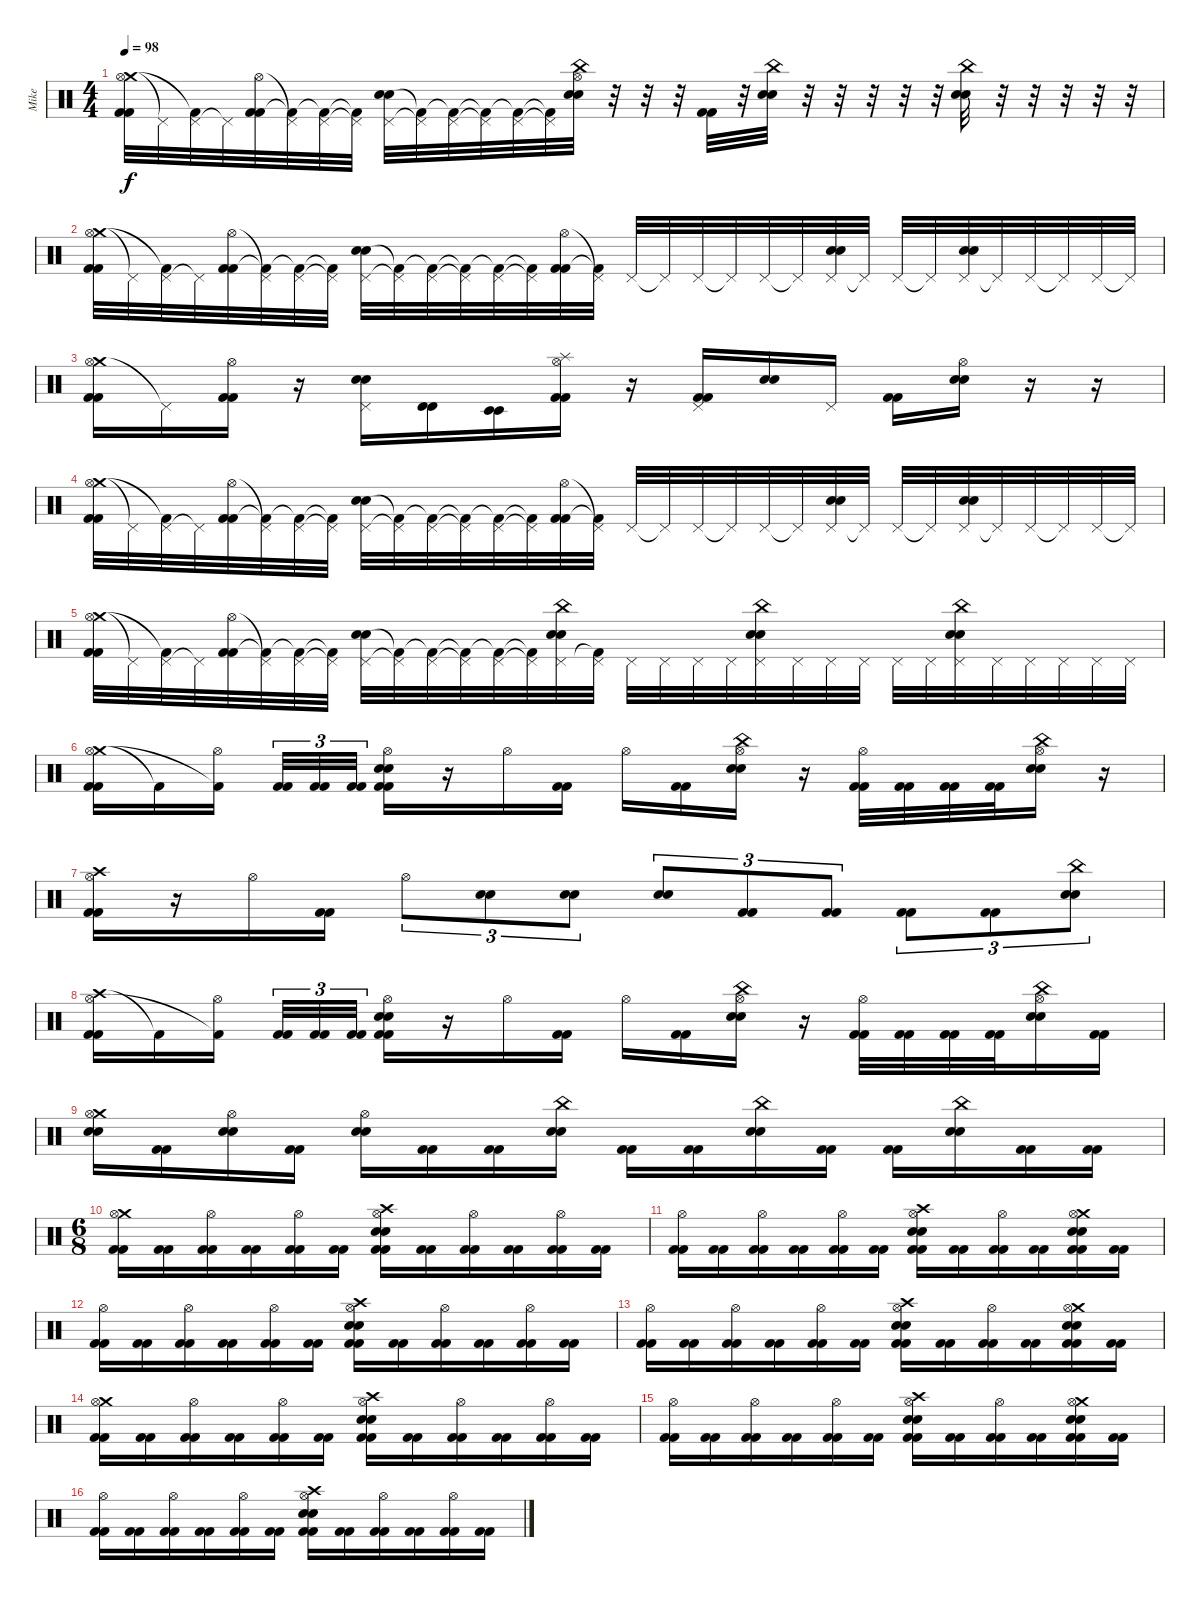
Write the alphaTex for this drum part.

\track ("Mike" "Mike") {instrument percussion}
\staff {score}
\articulation defaults
\ts (4 4)
\tempo 98
\clef neutral
\ks c
("Crash medium (hit)" "Hi-Hat (open)" "Kick (hit) 2" "Kick (hit) 2").32{dy f} "Pedal Hi-Hat (hit)"{t}.32 ("Pedal Hi-Hat (hit)" "Kick (hit) 2"{t}).32 "Pedal Hi-Hat (hit)"{t}.32 ("Hi-Hat (open)" "Kick (hit) 2" "Kick (hit) 2").32 ("Pedal Hi-Hat (hit)"{t} "Kick (hit) 2"{t}).32 ("Pedal Hi-Hat (hit)" "Kick (hit) 2"{t}).32 ("Pedal Hi-Hat (hit)"{t} "Kick (hit) 2"{t}).32 ("Pedal Hi-Hat (hit)" "Electric Snare (hit)" "Electric Snare (hit)").32 ("Pedal Hi-Hat (hit)"{t} "Kick (hit) 2"{t}).32 ("Pedal Hi-Hat (hit)" "Kick (hit) 2"{t}).32 ("Pedal Hi-Hat (hit)"{t} "Kick (hit) 2"{t}).32 ("Pedal Hi-Hat (hit)" "Kick (hit) 2"{t}).32 ("Pedal Hi-Hat (hit)"{t} "Kick (hit) 2"{t}).32 ("China (hit)" "Hi-Hat (open)" "Electric Snare (hit)" "Electric Snare (hit)").32 r.32 r.32 r.32 ("Kick (hit) 2" "Kick (hit) 2").32 r.32 ("China (hit)" "Electric Snare (hit)" "Electric Snare (hit)").32 r.32 r.32 r.32 r.32 r.32 ("China (hit)" "Electric Snare (hit)" "Electric Snare (hit)").32 r.32 r.32 r.32 r.32 r.32 |
("Crash medium (hit)" "Hi-Hat (open)" "Kick (hit) 2" "Kick (hit) 2").32 "Pedal Hi-Hat (hit)"{t}.32 ("Pedal Hi-Hat (hit)" "Kick (hit) 2"{t}).32 "Pedal Hi-Hat (hit)"{t}.32 ("Hi-Hat (open)" "Kick (hit) 2" "Kick (hit) 2").32 ("Pedal Hi-Hat (hit)"{t} "Kick (hit) 2"{t}).32 ("Pedal Hi-Hat (hit)" "Kick (hit) 2"{t}).32 ("Pedal Hi-Hat (hit)"{t} "Kick (hit) 2"{t}).32 ("Pedal Hi-Hat (hit)" "Electric Snare (hit)" "Electric Snare (hit)").32 ("Pedal Hi-Hat (hit)"{t} "Kick (hit) 2"{t}).32 ("Pedal Hi-Hat (hit)" "Kick (hit) 2"{t}).32 ("Pedal Hi-Hat (hit)"{t} "Kick (hit) 2"{t}).32 ("Pedal Hi-Hat (hit)" "Kick (hit) 2"{t}).32 ("Pedal Hi-Hat (hit)"{t} "Kick (hit) 2"{t}).32 ("Hi-Hat (open)" "Kick (hit) 2" "Kick (hit) 2").32 ("Pedal Hi-Hat (hit)"{t} "Kick (hit) 2"{t}).32 "Pedal Hi-Hat (hit)".32 "Pedal Hi-Hat (hit)"{t}.32 "Pedal Hi-Hat (hit)".32 "Pedal Hi-Hat (hit)"{t}.32 "Pedal Hi-Hat (hit)".32 "Pedal Hi-Hat (hit)"{t}.32 ("Pedal Hi-Hat (hit)" "Electric Snare (hit)" "Electric Snare (hit)").32 "Pedal Hi-Hat (hit)"{t}.32 "Pedal Hi-Hat (hit)".32 "Pedal Hi-Hat (hit)"{t}.32 ("Pedal Hi-Hat (hit)" "Electric Snare (hit)" "Electric Snare (hit)").32 "Pedal Hi-Hat (hit)"{t}.32 "Pedal Hi-Hat (hit)".32 "Pedal Hi-Hat (hit)"{t}.32 "Pedal Hi-Hat (hit)".32 "Pedal Hi-Hat (hit)"{t}.32 |
("Crash medium (hit)" "Hi-Hat (open)" "Kick (hit) 2" "Kick (hit) 2").16 "Pedal Hi-Hat (hit)"{t}.16 ("Hi-Hat (open)" "Kick (hit) 2" "Kick (hit) 2").16 r.16 ("Pedal Hi-Hat (hit)" "Electric Snare (hit)" "Electric Snare (hit)").16 ("Timbale high (hit)" "Timbale high (hit)").16 ("Timbale low (hit)" "Timbale low (hit)").16 ("Splash (hit)" "Hi-Hat (open)" "Kick (hit) 2" "Kick (hit) 2").16 r.16 ("Pedal Hi-Hat (hit)" "Kick (hit) 2" "Kick (hit) 2").16 ("Electric Snare (hit)" "Electric Snare (hit)").16 "Pedal Hi-Hat (hit)".16 ("Kick (hit) 2" "Kick (hit) 2").16 ("Hi-Hat (open)" "Electric Snare (hit)" "Electric Snare (hit)").16 r.16 r.16 |
("Crash medium (hit)" "Hi-Hat (open)" "Kick (hit) 2" "Kick (hit) 2").32 "Pedal Hi-Hat (hit)"{t}.32 ("Pedal Hi-Hat (hit)" "Kick (hit) 2"{t}).32 "Pedal Hi-Hat (hit)"{t}.32 ("Hi-Hat (open)" "Kick (hit) 2" "Kick (hit) 2").32 ("Pedal Hi-Hat (hit)"{t} "Kick (hit) 2"{t}).32 ("Pedal Hi-Hat (hit)" "Kick (hit) 2"{t}).32 ("Pedal Hi-Hat (hit)"{t} "Kick (hit) 2"{t}).32 ("Pedal Hi-Hat (hit)" "Electric Snare (hit)" "Electric Snare (hit)").32 ("Pedal Hi-Hat (hit)"{t} "Kick (hit) 2"{t}).32 ("Pedal Hi-Hat (hit)" "Kick (hit) 2"{t}).32 ("Pedal Hi-Hat (hit)"{t} "Kick (hit) 2"{t}).32 ("Pedal Hi-Hat (hit)" "Kick (hit) 2"{t}).32 ("Pedal Hi-Hat (hit)"{t} "Kick (hit) 2"{t}).32 ("Hi-Hat (open)" "Kick (hit) 2" "Kick (hit) 2").32 ("Pedal Hi-Hat (hit)"{t} "Kick (hit) 2"{t}).32 "Pedal Hi-Hat (hit)".32 "Pedal Hi-Hat (hit)"{t}.32 "Pedal Hi-Hat (hit)".32 "Pedal Hi-Hat (hit)"{t}.32 "Pedal Hi-Hat (hit)".32 "Pedal Hi-Hat (hit)"{t}.32 ("Pedal Hi-Hat (hit)" "Electric Snare (hit)" "Electric Snare (hit)").32 "Pedal Hi-Hat (hit)"{t}.32 "Pedal Hi-Hat (hit)".32 "Pedal Hi-Hat (hit)"{t}.32 ("Pedal Hi-Hat (hit)" "Electric Snare (hit)" "Electric Snare (hit)").32 "Pedal Hi-Hat (hit)"{t}.32 "Pedal Hi-Hat (hit)".32 "Pedal Hi-Hat (hit)"{t}.32 "Pedal Hi-Hat (hit)".32 "Pedal Hi-Hat (hit)"{t}.32 |
("Crash medium (hit)" "Hi-Hat (open)" "Kick (hit) 2" "Kick (hit) 2").32 "Pedal Hi-Hat (hit)"{t}.32 ("Pedal Hi-Hat (hit)" "Kick (hit) 2"{t}).32 "Pedal Hi-Hat (hit)"{t}.32 ("Hi-Hat (open)" "Kick (hit) 2" "Kick (hit) 2").32 ("Pedal Hi-Hat (hit)"{t} "Kick (hit) 2"{t}).32 ("Pedal Hi-Hat (hit)" "Kick (hit) 2"{t}).32 ("Pedal Hi-Hat (hit)"{t} "Kick (hit) 2"{t}).32 ("Pedal Hi-Hat (hit)" "Electric Snare (hit)" "Electric Snare (hit)").32 ("Pedal Hi-Hat (hit)"{t} "Kick (hit) 2"{t}).32 ("Pedal Hi-Hat (hit)" "Kick (hit) 2"{t}).32 ("Pedal Hi-Hat (hit)"{t} "Kick (hit) 2"{t}).32 ("Pedal Hi-Hat (hit)" "Kick (hit) 2"{t}).32 ("Pedal Hi-Hat (hit)"{t} "Kick (hit) 2"{t}).32 ("China (hit)" "Pedal Hi-Hat (hit)" "Electric Snare (hit)" "Electric Snare (hit)").32 ("Pedal Hi-Hat (hit)" "Kick (hit) 2"{t}).32 "Pedal Hi-Hat (hit)".32 "Pedal Hi-Hat (hit)".32 "Pedal Hi-Hat (hit)".32 "Pedal Hi-Hat (hit)".32 ("China (hit)" "Pedal Hi-Hat (hit)" "Electric Snare (hit)" "Electric Snare (hit)").32 "Pedal Hi-Hat (hit)".32 "Pedal Hi-Hat (hit)".32 "Pedal Hi-Hat (hit)".32 "Pedal Hi-Hat (hit)".32 "Pedal Hi-Hat (hit)".32 ("China (hit)" "Pedal Hi-Hat (hit)" "Electric Snare (hit)" "Electric Snare (hit)").32 "Pedal Hi-Hat (hit)".32 "Pedal Hi-Hat (hit)".32 "Pedal Hi-Hat (hit)".32 "Pedal Hi-Hat (hit)".32 "Pedal Hi-Hat (hit)".32 |
("Crash medium (hit)" "Hi-Hat (open)" "Kick (hit) 2" "Kick (hit) 2").16 "Kick (hit) 2"{t}.16 ("Hi-Hat (open)" "Kick (hit) 2"{t}).16 ("Kick (hit) 2" "Kick (hit) 2").32{tu (3 2)} ("Kick (hit) 2" "Kick (hit) 2").32{tu (3 2)} ("Kick (hit) 2" "Kick (hit) 2").32{tu (3 2)} ("Hi-Hat (open)" "Electric Snare (hit)" "Electric Snare (hit)" "Kick (hit) 2" "Kick (hit) 2").16 r.16 "Hi-Hat (open)".16 ("Kick (hit) 2" "Kick (hit) 2").16 "Hi-Hat (open)".16 ("Kick (hit) 2" "Kick (hit) 2").16 ("China (hit)" "Hi-Hat (open)" "Electric Snare (hit)" "Electric Snare (hit)").16 r.16 ("Hi-Hat (open)" "Kick (hit) 2" "Kick (hit) 2").32 ("Kick (hit) 2" "Kick (hit) 2").32 ("Kick (hit) 2" "Kick (hit) 2").32 ("Kick (hit) 2" "Kick (hit) 2").32 ("China (hit)" "Hi-Hat (open)" "Electric Snare (hit)" "Electric Snare (hit)").16 r.16 |
("Crash high (hit)" "Hi-Hat (open)" "Kick (hit) 2" "Kick (hit) 2").16 r.16 "Hi-Hat (open)".16 ("Kick (hit) 2" "Kick (hit) 2").16 "Hi-Hat (open)".8{tu (3 2)} ("Electric Snare (hit)" "Electric Snare (hit)").8{tu (3 2)} ("Electric Snare (hit)" "Electric Snare (hit)").8{tu (3 2)} ("Electric Snare (hit)" "Electric Snare (hit)").8{tu (3 2)} ("Kick (hit) 2" "Kick (hit) 2").8{tu (3 2)} ("Kick (hit) 2" "Kick (hit) 2").8{tu (3 2)} ("Kick (hit) 2" "Kick (hit) 2").8{tu (3 2)} ("Kick (hit) 2" "Kick (hit) 2").8{tu (3 2)} ("China (hit)" "Electric Snare (hit)" "Electric Snare (hit)").8{tu (3 2)} |
("Crash high (hit)" "Hi-Hat (open)" "Kick (hit) 2" "Kick (hit) 2").16 "Kick (hit) 2"{t}.16 ("Hi-Hat (open)" "Kick (hit) 2"{t}).16 ("Kick (hit) 2" "Kick (hit) 2").32{tu (3 2)} ("Kick (hit) 2" "Kick (hit) 2").32{tu (3 2)} ("Kick (hit) 2" "Kick (hit) 2").32{tu (3 2)} ("Hi-Hat (open)" "Electric Snare (hit)" "Electric Snare (hit)" "Kick (hit) 2" "Kick (hit) 2").16 r.16 "Hi-Hat (open)".16 ("Kick (hit) 2" "Kick (hit) 2").16 "Hi-Hat (open)".16 ("Kick (hit) 2" "Kick (hit) 2").16 ("China (hit)" "Hi-Hat (open)" "Electric Snare (hit)" "Electric Snare (hit)").16 r.16 ("Hi-Hat (open)" "Kick (hit) 2" "Kick (hit) 2").32 ("Kick (hit) 2" "Kick (hit) 2").32 ("Kick (hit) 2" "Kick (hit) 2").32 ("Kick (hit) 2" "Kick (hit) 2").32 ("China (hit)" "Hi-Hat (open)" "Electric Snare (hit)" "Electric Snare (hit)").16 ("Kick (hit) 2" "Kick (hit) 2").16 |
("Crash medium (hit)" "Hi-Hat (open)" "Electric Snare (hit)" "Electric Snare (hit)").16 ("Kick (hit) 2" "Kick (hit) 2").16 ("Hi-Hat (open)" "Electric Snare (hit)" "Electric Snare (hit)").16 ("Kick (hit) 2" "Kick (hit) 2").16 ("Hi-Hat (open)" "Electric Snare (hit)" "Electric Snare (hit)").16 ("Kick (hit) 2" "Kick (hit) 2").16 ("Kick (hit) 2" "Kick (hit) 2").16 ("China (hit)" "Electric Snare (hit)" "Electric Snare (hit)").16 ("Kick (hit) 2" "Kick (hit) 2").16 ("Kick (hit) 2" "Kick (hit) 2").16 ("China (hit)" "Electric Snare (hit)" "Electric Snare (hit)").16 ("Kick (hit) 2" "Kick (hit) 2").16 ("Kick (hit) 2" "Kick (hit) 2").16 ("China (hit)" "Electric Snare (hit)" "Electric Snare (hit)").16 ("Kick (hit) 2" "Kick (hit) 2").16 ("Kick (hit) 2" "Kick (hit) 2").16 |
\ts (6 8)
("Crash medium (hit)" "Hi-Hat (open)" "Kick (hit) 2" "Kick (hit) 2").16 ("Kick (hit) 2" "Kick (hit) 2").16 ("Hi-Hat (open)" "Kick (hit) 2" "Kick (hit) 2").16 ("Kick (hit) 2" "Kick (hit) 2").16 ("Hi-Hat (open)" "Kick (hit) 2" "Kick (hit) 2").16 ("Kick (hit) 2" "Kick (hit) 2").16 ("Crash high (hit)" "Hi-Hat (open)" "Electric Snare (hit)" "Electric Snare (hit)" "Kick (hit) 2" "Kick (hit) 2").16 ("Kick (hit) 2" "Kick (hit) 2").16 ("Hi-Hat (open)" "Kick (hit) 2" "Kick (hit) 2").16 ("Kick (hit) 2" "Kick (hit) 2").16 ("Hi-Hat (open)" "Kick (hit) 2" "Kick (hit) 2").16 ("Kick (hit) 2" "Kick (hit) 2").16 |
("Hi-Hat (open)" "Kick (hit) 2" "Kick (hit) 2").16 ("Kick (hit) 2" "Kick (hit) 2").16 ("Hi-Hat (open)" "Kick (hit) 2" "Kick (hit) 2").16 ("Kick (hit) 2" "Kick (hit) 2").16 ("Hi-Hat (open)" "Kick (hit) 2" "Kick (hit) 2").16 ("Kick (hit) 2" "Kick (hit) 2").16 ("Crash high (hit)" "Hi-Hat (open)" "Electric Snare (hit)" "Electric Snare (hit)" "Kick (hit) 2" "Kick (hit) 2").16 ("Kick (hit) 2" "Kick (hit) 2").16 ("Hi-Hat (open)" "Kick (hit) 2" "Kick (hit) 2").16 ("Kick (hit) 2" "Kick (hit) 2").16 ("Crash medium (hit)" "Hi-Hat (open)" "Electric Snare (hit)" "Electric Snare (hit)" "Kick (hit) 2" "Kick (hit) 2").16 ("Kick (hit) 2" "Kick (hit) 2").16 |
("Hi-Hat (open)" "Kick (hit) 2" "Kick (hit) 2").16 ("Kick (hit) 2" "Kick (hit) 2").16 ("Hi-Hat (open)" "Kick (hit) 2" "Kick (hit) 2").16 ("Kick (hit) 2" "Kick (hit) 2").16 ("Hi-Hat (open)" "Kick (hit) 2" "Kick (hit) 2").16 ("Kick (hit) 2" "Kick (hit) 2").16 ("Crash high (hit)" "Hi-Hat (open)" "Electric Snare (hit)" "Electric Snare (hit)" "Kick (hit) 2" "Kick (hit) 2").16 ("Kick (hit) 2" "Kick (hit) 2").16 ("Hi-Hat (open)" "Kick (hit) 2" "Kick (hit) 2").16 ("Kick (hit) 2" "Kick (hit) 2").16 ("Hi-Hat (open)" "Kick (hit) 2" "Kick (hit) 2").16 ("Kick (hit) 2" "Kick (hit) 2").16 |
("Hi-Hat (open)" "Kick (hit) 2" "Kick (hit) 2").16 ("Kick (hit) 2" "Kick (hit) 2").16 ("Hi-Hat (open)" "Kick (hit) 2" "Kick (hit) 2").16 ("Kick (hit) 2" "Kick (hit) 2").16 ("Hi-Hat (open)" "Kick (hit) 2" "Kick (hit) 2").16 ("Kick (hit) 2" "Kick (hit) 2").16 ("Crash high (hit)" "Hi-Hat (open)" "Electric Snare (hit)" "Electric Snare (hit)" "Kick (hit) 2" "Kick (hit) 2").16 ("Kick (hit) 2" "Kick (hit) 2").16 ("Hi-Hat (open)" "Kick (hit) 2" "Kick (hit) 2").16 ("Kick (hit) 2" "Kick (hit) 2").16 ("Crash medium (hit)" "Hi-Hat (open)" "Electric Snare (hit)" "Electric Snare (hit)" "Kick (hit) 2" "Kick (hit) 2").16 ("Kick (hit) 2" "Kick (hit) 2").16 |
("Crash medium (hit)" "Hi-Hat (open)" "Kick (hit) 2" "Kick (hit) 2").16 ("Kick (hit) 2" "Kick (hit) 2").16 ("Hi-Hat (open)" "Kick (hit) 2" "Kick (hit) 2").16 ("Kick (hit) 2" "Kick (hit) 2").16 ("Hi-Hat (open)" "Kick (hit) 2" "Kick (hit) 2").16 ("Kick (hit) 2" "Kick (hit) 2").16 ("Crash high (hit)" "Hi-Hat (open)" "Electric Snare (hit)" "Electric Snare (hit)" "Kick (hit) 2" "Kick (hit) 2").16 ("Kick (hit) 2" "Kick (hit) 2").16 ("Hi-Hat (open)" "Kick (hit) 2" "Kick (hit) 2").16 ("Kick (hit) 2" "Kick (hit) 2").16 ("Hi-Hat (open)" "Kick (hit) 2" "Kick (hit) 2").16 ("Kick (hit) 2" "Kick (hit) 2").16 |
("Hi-Hat (open)" "Kick (hit) 2" "Kick (hit) 2").16 ("Kick (hit) 2" "Kick (hit) 2").16 ("Hi-Hat (open)" "Kick (hit) 2" "Kick (hit) 2").16 ("Kick (hit) 2" "Kick (hit) 2").16 ("Hi-Hat (open)" "Kick (hit) 2" "Kick (hit) 2").16 ("Kick (hit) 2" "Kick (hit) 2").16 ("Crash high (hit)" "Hi-Hat (open)" "Electric Snare (hit)" "Electric Snare (hit)" "Kick (hit) 2" "Kick (hit) 2").16 ("Kick (hit) 2" "Kick (hit) 2").16 ("Hi-Hat (open)" "Kick (hit) 2" "Kick (hit) 2").16 ("Kick (hit) 2" "Kick (hit) 2").16 ("Crash medium (hit)" "Hi-Hat (open)" "Electric Snare (hit)" "Electric Snare (hit)" "Kick (hit) 2" "Kick (hit) 2").16 ("Kick (hit) 2" "Kick (hit) 2").16 |
("Hi-Hat (open)" "Kick (hit) 2" "Kick (hit) 2").16 ("Kick (hit) 2" "Kick (hit) 2").16 ("Hi-Hat (open)" "Kick (hit) 2" "Kick (hit) 2").16 ("Kick (hit) 2" "Kick (hit) 2").16 ("Hi-Hat (open)" "Kick (hit) 2" "Kick (hit) 2").16 ("Kick (hit) 2" "Kick (hit) 2").16 ("Crash high (hit)" "Hi-Hat (open)" "Electric Snare (hit)" "Electric Snare (hit)" "Kick (hit) 2" "Kick (hit) 2").16 ("Kick (hit) 2" "Kick (hit) 2").16 ("Hi-Hat (open)" "Kick (hit) 2" "Kick (hit) 2").16 ("Kick (hit) 2" "Kick (hit) 2").16 ("Hi-Hat (open)" "Kick (hit) 2" "Kick (hit) 2").16 ("Kick (hit) 2" "Kick (hit) 2").16
